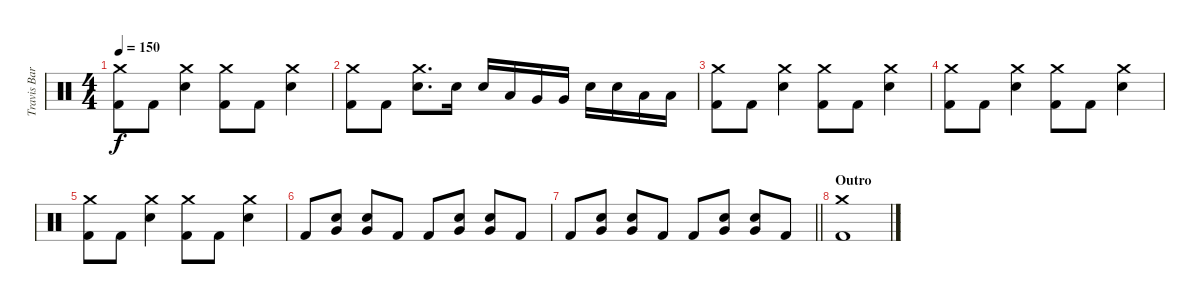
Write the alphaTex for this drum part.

\track ("Travis Barker - Drums" "Travis Bar") {instrument percussion}
\staff {score}
\articulation defaults
\ts (4 4)
\tempo 150
\clef neutral
\ks c
("Crash medium (hit)" "Kick (hit) 2").8{dy f} "Kick (hit) 2".8 ("Crash medium (hit)" "Electric Snare (hit)").4 ("Crash medium (hit)" "Kick (hit) 2").8 "Kick (hit) 2".8 ("Crash medium (hit)" "Electric Snare (hit)").4 |
("Crash medium (hit)" "Kick (hit) 2").8 "Kick (hit) 2".8 ("Crash medium (hit)" "Electric Snare (hit)").8{d} "Electric Snare (hit)".16 "Electric Snare (hit)".16 "Low Tom (hit)".16 "Very Low Tom (hit)".16 "Very Low Tom (hit)".16 "Electric Snare (hit)".16 "Electric Snare (hit)".16 "Low Tom (hit)".16 "Low Tom (hit)".16 |
("Crash medium (hit)" "Kick (hit) 2").8 "Kick (hit) 2".8 ("Crash medium (hit)" "Electric Snare (hit)").4 ("Crash medium (hit)" "Kick (hit) 2").8 "Kick (hit) 2".8 ("Crash medium (hit)" "Electric Snare (hit)").4 |
("Crash medium (hit)" "Kick (hit) 2").8 "Kick (hit) 2".8 ("Crash medium (hit)" "Electric Snare (hit)").4 ("Crash medium (hit)" "Kick (hit) 2").8 "Kick (hit) 2".8 ("Crash medium (hit)" "Electric Snare (hit)").4 |
("Crash medium (hit)" "Kick (hit) 2").8 "Kick (hit) 2".8 ("Crash medium (hit)" "Electric Snare (hit)").4 ("Crash medium (hit)" "Kick (hit) 2").8 "Kick (hit) 2".8 ("Crash medium (hit)" "Electric Snare (hit)").4 |
"Kick (hit) 2".8 ("Electric Snare (hit)" "Very Low Tom (hit)").8 ("Electric Snare (hit)" "Very Low Tom (hit)").8 "Kick (hit) 2".8 "Kick (hit) 2".8 ("Electric Snare (hit)" "Very Low Tom (hit)").8 ("Electric Snare (hit)" "Very Low Tom (hit)").8 "Kick (hit) 2".8 |
\barLineRight lightlight "Kick (hit) 2".8
("Electric Snare (hit)" "Very Low Tom (hit)").8 ("Electric Snare (hit)" "Very Low Tom (hit)").8 "Kick (hit) 2".8 "Kick (hit) 2".8 ("Electric Snare (hit)" "Very Low Tom (hit)").8 ("Electric Snare (hit)" "Very Low Tom (hit)").8 "Kick (hit) 2".8 |
\section ("" "Outro")
("Crash medium (hit)" "Kick (hit) 2").1
